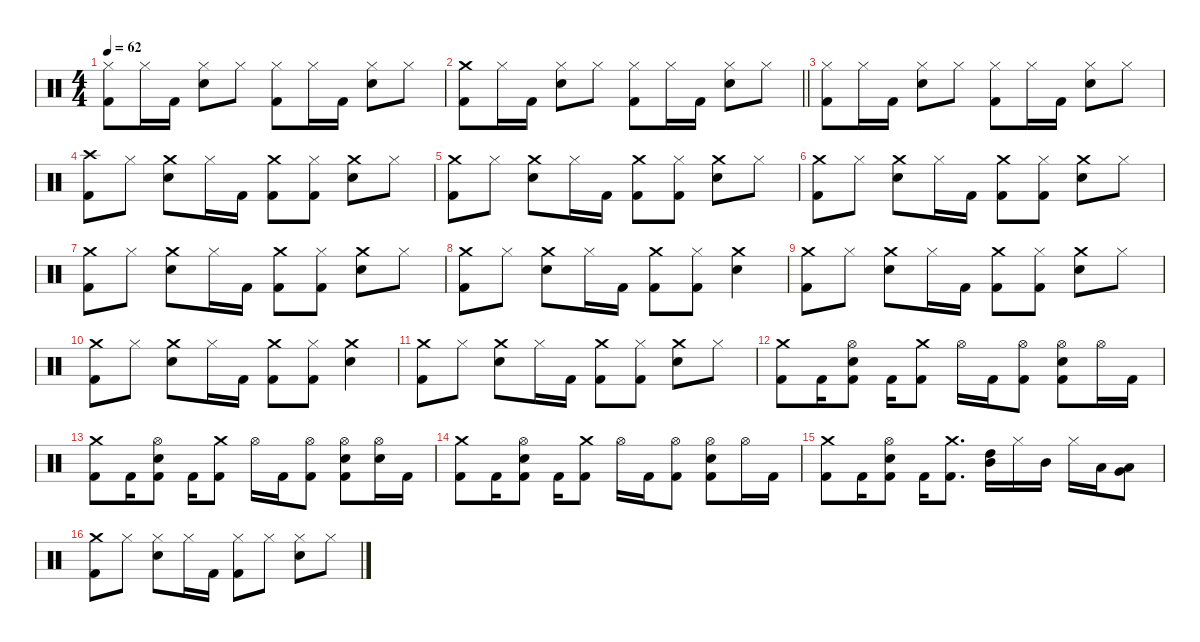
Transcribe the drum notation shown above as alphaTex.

\defaultSystemsLayout 4
\hideDynamics
\bracketExtendMode nobrackets
\singleTrackTrackNamePolicy hidden
\multiTrackTrackNamePolicy hidden
\firstSystemTrackNameMode fullname
\otherSystemsTrackNameOrientation horizontal
\track ("Drums" "drm.") {instrument percussion}
\staff {score}
\articulation defaults
\ts (4 4)
\tempo 62
\clef neutral
\ks c
("Hi-Hat (closed)" "Kick (hit) 2").8{dy f beam Down} "Hi-Hat (closed)".16{beam Down} "Kick (hit) 2".16{beam Down} ("Hi-Hat (closed)" "Snare (hit) 2").8{beam Down} "Hi-Hat (closed)".8{beam Down} ("Hi-Hat (closed)" "Kick (hit) 2").8{beam Down} "Hi-Hat (closed)".16{beam Down} "Kick (hit) 2".16{beam Down} ("Hi-Hat (closed)" "Snare (hit) 2").8{beam Down} "Hi-Hat (closed)".8{beam Down} |
\barLineRight lightlight
("Crash medium (hit)" "Kick (hit) 2").8{beam Down} "Hi-Hat (closed)".16{beam Down} "Kick (hit) 2".16{beam Down} ("Hi-Hat (closed)" "Snare (hit) 2").8{beam Down} "Hi-Hat (closed)".8{beam Down} ("Hi-Hat (closed)" "Kick (hit) 2").8{beam Down} "Hi-Hat (closed)".16{beam Down} "Kick (hit) 2".16{beam Down} ("Hi-Hat (closed)" "Snare (hit) 2").8{beam Down} "Hi-Hat (closed)".8{beam Down} |
("Hi-Hat (closed)" "Kick (hit) 2").8{beam Down} "Hi-Hat (closed)".16{beam Down} "Kick (hit) 2".16{beam Down} ("Hi-Hat (closed)" "Snare (hit) 2").8{beam Down} "Hi-Hat (closed)".8{beam Down} ("Hi-Hat (closed)" "Kick (hit) 2").8{beam Down} "Hi-Hat (closed)".16{beam Down} "Kick (hit) 2".16{beam Down} ("Hi-Hat (closed)" "Snare (hit) 2").8{beam Down} "Hi-Hat (closed)".8{beam Down} |
("Crash high (hit)" "Kick (hit) 2").8{beam Down} "Hi-Hat (closed)".8{beam Down} ("Crash medium (hit)" "Snare (hit) 2").8{beam Down} "Hi-Hat (closed)".16{beam Down} "Kick (hit) 2".16{beam Down} ("Crash medium (hit)" "Kick (hit) 2").8{beam Down} ("Hi-Hat (closed)" "Kick (hit) 2").8{beam Down} ("Crash medium (hit)" "Snare (hit) 2").8{beam Down} "Hi-Hat (closed)".8{beam Down} |
("Crash medium (hit)" "Kick (hit) 2").8{beam Down} "Hi-Hat (closed)".8{beam Down} ("Crash medium (hit)" "Snare (hit) 2").8{beam Down} "Hi-Hat (closed)".16{beam Down} "Kick (hit) 2".16{beam Down} ("Crash medium (hit)" "Kick (hit) 2").8{beam Down} ("Hi-Hat (closed)" "Kick (hit) 2").8{beam Down} ("Crash medium (hit)" "Snare (hit) 2").8{beam Down} "Hi-Hat (closed)".8{beam Down} |
("Crash medium (hit)" "Kick (hit) 2").8{beam Down} "Hi-Hat (closed)".8{beam Down} ("Crash medium (hit)" "Snare (hit) 2").8{beam Down} "Hi-Hat (closed)".16{beam Down} "Kick (hit) 2".16{beam Down} ("Crash medium (hit)" "Kick (hit) 2").8{beam Down} ("Hi-Hat (closed)" "Kick (hit) 2").8{beam Down} ("Crash medium (hit)" "Snare (hit) 2").8{beam Down} "Hi-Hat (closed)".8{beam Down} |
("Crash medium (hit)" "Kick (hit) 2").8{beam Down} "Hi-Hat (closed)".8{beam Down} ("Crash medium (hit)" "Snare (hit) 2").8{beam Down} "Hi-Hat (closed)".16{beam Down} "Kick (hit) 2".16{beam Down} ("Crash medium (hit)" "Kick (hit) 2").8{beam Down} ("Hi-Hat (closed)" "Kick (hit) 2").8{beam Down} ("Crash medium (hit)" "Snare (hit) 2").8{beam Down} "Hi-Hat (closed)".8{beam Down} |
("Crash medium (hit)" "Kick (hit) 2").8{beam Down} "Hi-Hat (closed)".8{beam Down} ("Crash medium (hit)" "Snare (hit) 2").8{beam Down} "Hi-Hat (closed)".16{beam Down} "Kick (hit) 2".16{beam Down} ("Crash medium (hit)" "Kick (hit) 2").8{beam Down} ("Hi-Hat (closed)" "Kick (hit) 2").8{beam Down} ("Crash medium (hit)" "Snare (hit) 2").4{beam Down} |
("Crash medium (hit)" "Kick (hit) 2").8{beam Down} "Hi-Hat (closed)".8{beam Down} ("Crash medium (hit)" "Snare (hit) 2").8{beam Down} "Hi-Hat (closed)".16{beam Down} "Kick (hit) 2".16{beam Down} ("Crash medium (hit)" "Kick (hit) 2").8{beam Down} ("Hi-Hat (closed)" "Kick (hit) 2").8{beam Down} ("Crash medium (hit)" "Snare (hit) 2").8{beam Down} "Hi-Hat (closed)".8{beam Down} |
("Crash medium (hit)" "Kick (hit) 2").8{beam Down} "Hi-Hat (closed)".8{beam Down} ("Crash medium (hit)" "Snare (hit) 2").8{beam Down} "Hi-Hat (closed)".16{beam Down} "Kick (hit) 2".16{beam Down} ("Crash medium (hit)" "Kick (hit) 2").8{beam Down} ("Hi-Hat (closed)" "Kick (hit) 2").8{beam Down} ("Crash medium (hit)" "Snare (hit) 2").4{beam Down} |
("Crash medium (hit)" "Kick (hit) 2").8{beam Down} "Hi-Hat (closed)".8{beam Down} ("Crash medium (hit)" "Snare (hit) 2").8{beam Down} "Hi-Hat (closed)".16{beam Down} "Kick (hit) 2".16{beam Down} ("Crash medium (hit)" "Kick (hit) 2").8{beam Down} ("Hi-Hat (closed)" "Kick (hit) 2").8{beam Down} ("Crash medium (hit)" "Snare (hit) 2").8{beam Down} "Hi-Hat (closed)".8{beam Down} |
("Crash medium (hit)" "Kick (hit) 2").8{beam Down} "Kick (hit) 2".16{beam Down} ("Hi-Hat (open)" "Snare (hit) 2" "Kick (hit) 2").8{beam Down} "Kick (hit) 2".16{beam Down} ("Crash medium (hit)" "Kick (hit) 2").8{beam Down} "Hi-Hat (open)".16{beam Down} "Kick (hit) 2".16{beam Down} ("Hi-Hat (open)" "Kick (hit) 2").8{beam Down} ("Hi-Hat (open)" "Snare (hit) 2" "Kick (hit) 2").8{beam Down} "Hi-Hat (open)".16{beam Down} "Kick (hit) 2".16{beam Down} |
("Crash medium (hit)" "Kick (hit) 2").8{beam Down} "Kick (hit) 2".16{beam Down} ("Hi-Hat (open)" "Snare (hit) 2" "Kick (hit) 2").8{beam Down} "Kick (hit) 2".16{beam Down} ("Crash medium (hit)" "Kick (hit) 2").8{beam Down} "Hi-Hat (open)".16{beam Down} "Kick (hit) 2".16{beam Down} ("Hi-Hat (open)" "Kick (hit) 2").8{beam Down} ("Hi-Hat (open)" "Snare (hit) 2" "Kick (hit) 2").8{beam Down} ("Hi-Hat (open)" "Snare (hit) 2").16{beam Down} "Kick (hit) 2".16{beam Down} |
("Crash medium (hit)" "Kick (hit) 2").8{beam Down} "Kick (hit) 2".16{beam Down} ("Hi-Hat (open)" "Snare (hit) 2" "Kick (hit) 2").8{beam Down} "Kick (hit) 2".16{beam Down} ("Crash medium (hit)" "Kick (hit) 2").8{beam Down} "Hi-Hat (open)".16{beam Down} "Kick (hit) 2".16{beam Down} ("Hi-Hat (open)" "Kick (hit) 2").8{beam Down} ("Hi-Hat (open)" "Snare (hit) 2" "Kick (hit) 2").8{beam Down} "Hi-Hat (open)".16{beam Down} "Kick (hit) 2".16{beam Down} |
("Crash medium (hit)" "Kick (hit) 2").8{beam Down} "Kick (hit) 2".16{beam Down} ("Hi-Hat (open)" "Snare (hit) 2" "Kick (hit) 2").8{beam Down} "Kick (hit) 2".16{beam Down} ("Crash medium (hit)" "Kick (hit) 2").8{d beam Down} ("Mid Tom (hit)" "High Tom (hit)").16{beam Down} "Hi-Hat (closed)".16{beam Down} "Mid Tom (hit)".16{beam Down} "Hi-Hat (closed)".16{beam Down} "Low Tom (hit)".16{beam Down} ("Very Low Tom (hit)" "Low Floor Tom (hit)").8{beam Down} |
("Crash medium (hit)" "Kick (hit) 2").8{beam Down} "Hi-Hat (closed)".8{beam Down} ("Hi-Hat (closed)" "Snare (hit) 2").8{beam Down} "Hi-Hat (closed)".16{beam Down} "Kick (hit) 2".16{beam Down} ("Hi-Hat (closed)" "Kick (hit) 2").8{beam Down} "Hi-Hat (closed)".8{beam Down} ("Hi-Hat (closed)" "Snare (hit) 2").8{beam Down} "Hi-Hat (closed)".8{beam Down}
